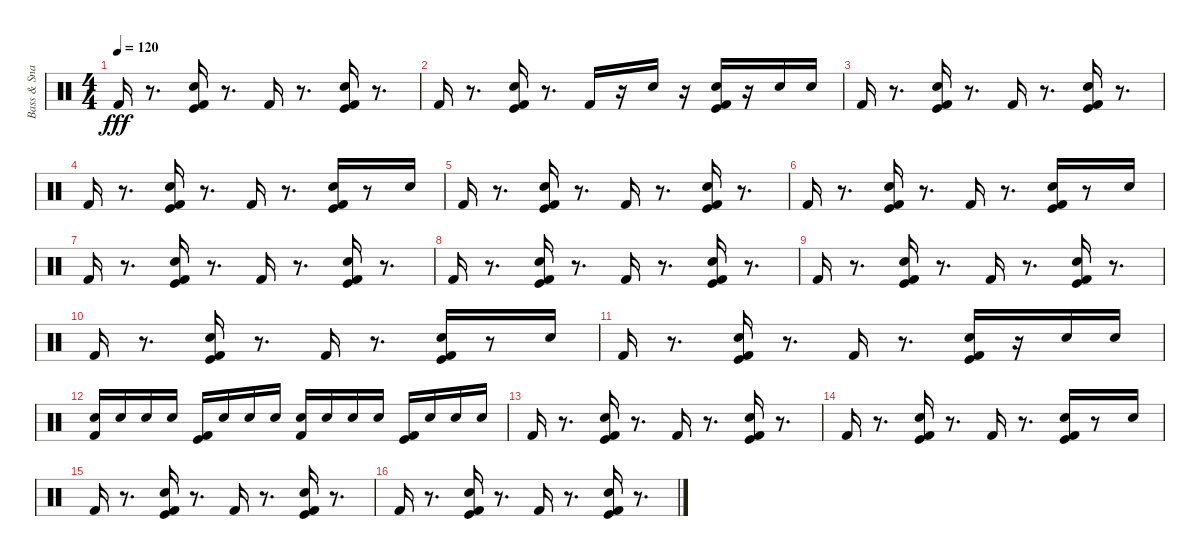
\track ("Bass & Snare Drums" "Bass & Sna") {instrument percussion}
\staff {score}
\articulation defaults
\ts (4 4)
\tempo 120
\clef neutral
\ks c "Kick (hit) 2".16{dy fff}
r.8{d} ("Electric Snare (hit)" "Kick (hit)" "Kick (hit) 2").16 r.8{d} "Kick (hit) 2".16 r.8{d} ("Electric Snare (hit)" "Kick (hit)" "Kick (hit) 2").16 r.8{d} |
"Kick (hit) 2".16 r.8{d} ("Electric Snare (hit)" "Kick (hit) 2" "Kick (hit)").16 r.8{d} "Kick (hit) 2".16 r.16 "Electric Snare (hit)".16 r.16 ("Electric Snare (hit)" "Kick (hit)" "Kick (hit) 2").16 r.16 "Electric Snare (hit)".16 "Electric Snare (hit)".16 |
"Kick (hit) 2".16 r.8{d} ("Electric Snare (hit)" "Kick (hit)" "Kick (hit) 2").16 r.8{d} "Kick (hit) 2".16 r.8{d} ("Electric Snare (hit)" "Kick (hit)" "Kick (hit) 2").16 r.8{d} |
"Kick (hit) 2".16 r.8{d} ("Electric Snare (hit)" "Kick (hit) 2" "Kick (hit)").16 r.8{d} "Kick (hit) 2".16 r.8{d} ("Electric Snare (hit)" "Kick (hit)" "Kick (hit) 2").16 r.8 "Electric Snare (hit)".16 |
"Kick (hit) 2".16 r.8{d} ("Electric Snare (hit)" "Kick (hit)" "Kick (hit) 2").16 r.8{d} "Kick (hit) 2".16 r.8{d} ("Electric Snare (hit)" "Kick (hit)" "Kick (hit) 2").16 r.8{d} |
"Kick (hit) 2".16 r.8{d} ("Electric Snare (hit)" "Kick (hit) 2" "Kick (hit)").16 r.8{d} "Kick (hit) 2".16 r.8{d} ("Electric Snare (hit)" "Kick (hit)" "Kick (hit) 2").16 r.8 "Electric Snare (hit)".16 |
"Kick (hit) 2".16 r.8{d} ("Electric Snare (hit)" "Kick (hit)" "Kick (hit) 2").16 r.8{d} "Kick (hit) 2".16 r.8{d} ("Electric Snare (hit)" "Kick (hit)" "Kick (hit) 2").16 r.8{d} |
"Kick (hit) 2".16 r.8{d} ("Electric Snare (hit)" "Kick (hit) 2" "Kick (hit)").16 r.8{d} "Kick (hit) 2".16 r.8{d} ("Electric Snare (hit)" "Kick (hit)" "Kick (hit) 2").16 r.8{d} |
"Kick (hit) 2".16 r.8{d} ("Electric Snare (hit)" "Kick (hit)" "Kick (hit) 2").16 r.8{d} "Kick (hit) 2".16 r.8{d} ("Electric Snare (hit)" "Kick (hit)" "Kick (hit) 2").16 r.8{d} |
"Kick (hit) 2".16 r.8{d} ("Electric Snare (hit)" "Kick (hit) 2" "Kick (hit)").16 r.8{d} "Kick (hit) 2".16 r.8{d} ("Electric Snare (hit)" "Kick (hit)" "Kick (hit) 2").16 r.8 "Electric Snare (hit)".16 |
"Kick (hit) 2".16 r.8{d} ("Electric Snare (hit)" "Kick (hit)" "Kick (hit) 2").16 r.8{d} "Kick (hit) 2".16 r.8{d} ("Electric Snare (hit)" "Kick (hit)" "Kick (hit) 2").16 r.16 "Electric Snare (hit)".16 "Electric Snare (hit)".16 |
("Electric Snare (hit)" "Kick (hit) 2").16 "Electric Snare (hit)".16 "Electric Snare (hit)".16 "Electric Snare (hit)".16 ("Kick (hit) 2" "Kick (hit)").16 "Electric Snare (hit)".16 "Electric Snare (hit)".16 "Electric Snare (hit)".16 ("Electric Snare (hit)" "Kick (hit) 2").16 "Electric Snare (hit)".16 "Electric Snare (hit)".16 "Electric Snare (hit)".16 ("Kick (hit) 2" "Kick (hit)").16 "Electric Snare (hit)".16 "Electric Snare (hit)".16 "Electric Snare (hit)".16 |
"Kick (hit) 2".16 r.8{d} ("Electric Snare (hit)" "Kick (hit)" "Kick (hit) 2").16 r.8{d} "Kick (hit) 2".16 r.8{d} ("Electric Snare (hit)" "Kick (hit)" "Kick (hit) 2").16 r.8{d} |
"Kick (hit) 2".16 r.8{d} ("Electric Snare (hit)" "Kick (hit) 2" "Kick (hit)").16 r.8{d} "Kick (hit) 2".16 r.8{d} ("Electric Snare (hit)" "Kick (hit)" "Kick (hit) 2").16 r.8 "Electric Snare (hit)".16 |
"Kick (hit) 2".16 r.8{d} ("Electric Snare (hit)" "Kick (hit)" "Kick (hit) 2").16 r.8{d} "Kick (hit) 2".16 r.8{d} ("Electric Snare (hit)" "Kick (hit)" "Kick (hit) 2").16 r.8{d} |
"Kick (hit) 2".16 r.8{d} ("Electric Snare (hit)" "Kick (hit) 2" "Kick (hit)").16 r.8{d} "Kick (hit) 2".16 r.8{d} ("Electric Snare (hit)" "Kick (hit)" "Kick (hit) 2").16 r.8{d}
